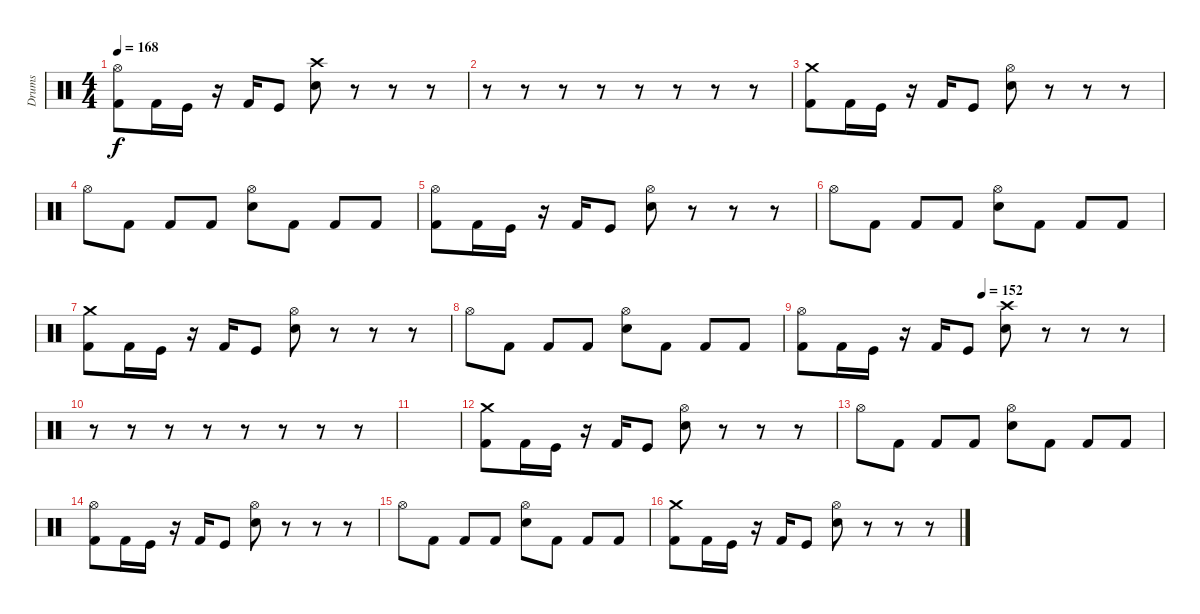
\track ("Drums" "Drums") {instrument percussion}
\staff
\articulation defaults
\ts (4 4)
\tempo 168
\clef neutral
\ks c
("Hi-Hat (open)" "Kick (hit) 2").8{dy f} "Kick (hit) 2".16 "Kick (hit)".16 r.16 "Kick (hit) 2".16 "Kick (hit)".8 ("Crash high (hit)" "Electric Snare (hit)").8 r.8 r.8 r.8 |
r.8 r.8 r.8 r.8 r.8 r.8 r.8 r.8 |
("Crash medium (hit)" "Kick (hit) 2").8 "Kick (hit) 2".16 "Kick (hit)".16 r.16 "Kick (hit) 2".16 "Kick (hit)".8 ("Hi-Hat (open)" "Electric Snare (hit)").8 r.8 r.8 r.8 |
"Hi-Hat (open)".8 "Kick (hit) 2".8 "Kick (hit) 2".8 "Kick (hit) 2".8 ("Hi-Hat (open)" "Electric Snare (hit)").8 "Kick (hit) 2".8 "Kick (hit) 2".8 "Kick (hit) 2".8 |
("Hi-Hat (open)" "Kick (hit) 2").8 "Kick (hit) 2".16 "Kick (hit)".16 r.16 "Kick (hit) 2".16 "Kick (hit)".8 ("Hi-Hat (open)" "Electric Snare (hit)").8 r.8 r.8 r.8 |
"Hi-Hat (open)".8 "Kick (hit) 2".8 "Kick (hit) 2".8 "Kick (hit) 2".8 ("Hi-Hat (open)" "Electric Snare (hit)").8 "Kick (hit) 2".8 "Kick (hit) 2".8 "Kick (hit) 2".8 |
("Crash medium (hit)" "Kick (hit) 2").8 "Kick (hit) 2".16 "Kick (hit)".16 r.16 "Kick (hit) 2".16 "Kick (hit)".8 ("Hi-Hat (open)" "Electric Snare (hit)").8 r.8 r.8 r.8 |
"Hi-Hat (open)".8 "Kick (hit) 2".8 "Kick (hit) 2".8 "Kick (hit) 2".8 ("Hi-Hat (open)" "Electric Snare (hit)").8 "Kick (hit) 2".8 "Kick (hit) 2".8 "Kick (hit) 2".8 |
\tempo (152 0.5)
("Hi-Hat (open)" "Kick (hit) 2").8 "Kick (hit) 2".16 "Kick (hit)".16 r.16 "Kick (hit) 2".16 "Kick (hit)".8 ("Crash high (hit)" "Electric Snare (hit)").8 r.8 r.8 r.8 |
r.8 r.8 r.8 r.8 r.8 r.8 r.8 r.8 |
|
("Crash medium (hit)" "Kick (hit) 2").8 "Kick (hit) 2".16 "Kick (hit)".16 r.16 "Kick (hit) 2".16 "Kick (hit)".8 ("Hi-Hat (open)" "Electric Snare (hit)").8 r.8 r.8 r.8 |
"Hi-Hat (open)".8 "Kick (hit) 2".8 "Kick (hit) 2".8 "Kick (hit) 2".8 ("Hi-Hat (open)" "Electric Snare (hit)").8 "Kick (hit) 2".8 "Kick (hit) 2".8 "Kick (hit) 2".8 |
("Hi-Hat (open)" "Kick (hit) 2").8 "Kick (hit) 2".16 "Kick (hit)".16 r.16 "Kick (hit) 2".16 "Kick (hit)".8 ("Hi-Hat (open)" "Electric Snare (hit)").8 r.8 r.8 r.8 |
"Hi-Hat (open)".8 "Kick (hit) 2".8 "Kick (hit) 2".8 "Kick (hit) 2".8 ("Hi-Hat (open)" "Electric Snare (hit)").8 "Kick (hit) 2".8 "Kick (hit) 2".8 "Kick (hit) 2".8 |
("Crash medium (hit)" "Kick (hit) 2").8 "Kick (hit) 2".16 "Kick (hit)".16 r.16 "Kick (hit) 2".16 "Kick (hit)".8 ("Hi-Hat (open)" "Electric Snare (hit)").8 r.8 r.8 r.8
